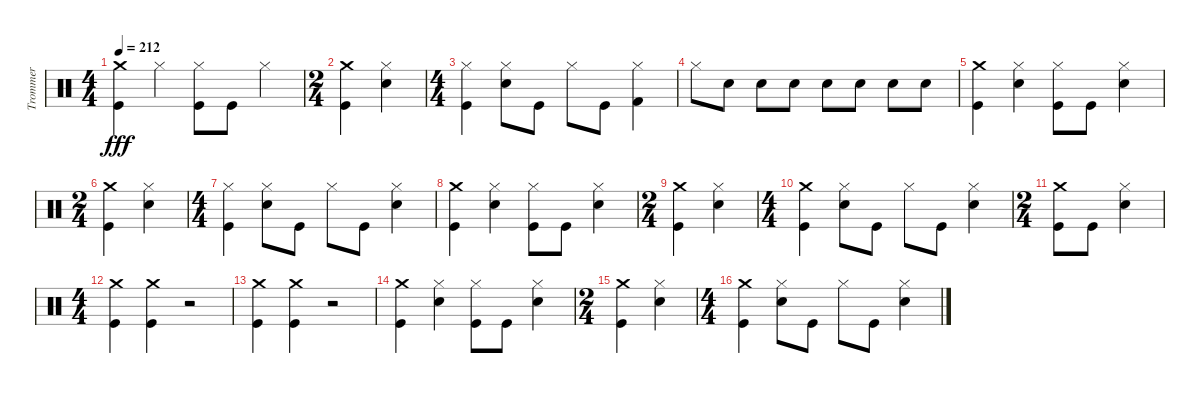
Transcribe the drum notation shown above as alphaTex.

\track ("Trommer" "Trommer") {instrument percussion}
\staff {score}
\articulation defaults
\ts (4 4)
\tempo 212
\clef neutral
\ks c
("Kick (hit)" "Crash medium (hit)").4{dy fff} "Hi-Hat (closed)".4 ("Hi-Hat (closed)" "Kick (hit)").8 "Kick (hit)".8 "Hi-Hat (closed)".4 |
\ts (2 4)
("Kick (hit)" "Crash medium (hit)").4 ("Snare (hit) 2" "Hi-Hat (closed)").4 |
\ts (4 4)
("Kick (hit)" "Hi-Hat (closed)").4 ("Snare (hit) 2" "Hi-Hat (closed)").8 "Kick (hit)".8 "Hi-Hat (closed)".8 "Kick (hit)".8 ("Kick (hit) 2" "Hi-Hat (closed)").4 |
"Hi-Hat (closed)".8 "Snare (hit) 2".8 "Snare (hit) 2".8 "Snare (hit) 2".8 "Snare (hit) 2".8 "Snare (hit) 2".8 "Snare (hit) 2".8 "Snare (hit) 2".8 |
("Crash medium (hit)" "Kick (hit)").4 ("Hi-Hat (closed)" "Snare (hit) 2").4 ("Hi-Hat (closed)" "Kick (hit)").8 "Kick (hit)".8 ("Snare (hit) 2" "Hi-Hat (closed)").4 |
\ts (2 4)
("Kick (hit)" "Crash medium (hit)").4 ("Snare (hit) 2" "Hi-Hat (closed)").4 |
\ts (4 4)
("Kick (hit)" "Hi-Hat (closed)").4 ("Hi-Hat (closed)" "Snare (hit) 2").8 "Kick (hit)".8 "Hi-Hat (closed)".8 "Kick (hit)".8 ("Snare (hit) 2" "Hi-Hat (closed)").4 |
("Kick (hit)" "Crash medium (hit)").4 ("Snare (hit) 2" "Hi-Hat (closed)").4 ("Kick (hit)" "Hi-Hat (closed)").8 "Kick (hit)".8 ("Snare (hit) 2" "Hi-Hat (closed)").4 |
\ts (2 4)
("Kick (hit)" "Crash medium (hit)").4 ("Snare (hit) 2" "Hi-Hat (closed)").4 |
\ts (4 4)
("Kick (hit)" "Crash medium (hit)").4 ("Snare (hit) 2" "Hi-Hat (closed)").8 "Kick (hit)".8 "Hi-Hat (closed)".8 "Kick (hit)".8 ("Hi-Hat (closed)" "Snare (hit) 2").4 |
\ts (2 4)
("Kick (hit)" "Crash medium (hit)").8 "Kick (hit)".8 ("Snare (hit) 2" "Hi-Hat (closed)").4 |
\ts (4 4)
("Kick (hit)" "Crash medium (hit)").4 ("Kick (hit)" "Crash medium (hit)").4 r.2 |
("Kick (hit)" "Crash medium (hit)").4 ("Crash medium (hit)" "Kick (hit)").4 r.2 |
("Kick (hit)" "Crash medium (hit)").4 ("Snare (hit) 2" "Hi-Hat (closed)").4 ("Kick (hit)" "Hi-Hat (closed)").8 "Kick (hit)".8 ("Snare (hit) 2" "Hi-Hat (closed)").4 |
\ts (2 4)
("Kick (hit)" "Crash medium (hit)").4 ("Hi-Hat (closed)" "Snare (hit) 2").4 |
\ts (4 4)
("Kick (hit)" "Crash medium (hit)").4 ("Snare (hit) 2" "Hi-Hat (closed)").8 "Kick (hit)".8 "Hi-Hat (closed)".8 "Kick (hit)".8 ("Snare (hit) 2" "Hi-Hat (closed)").4
